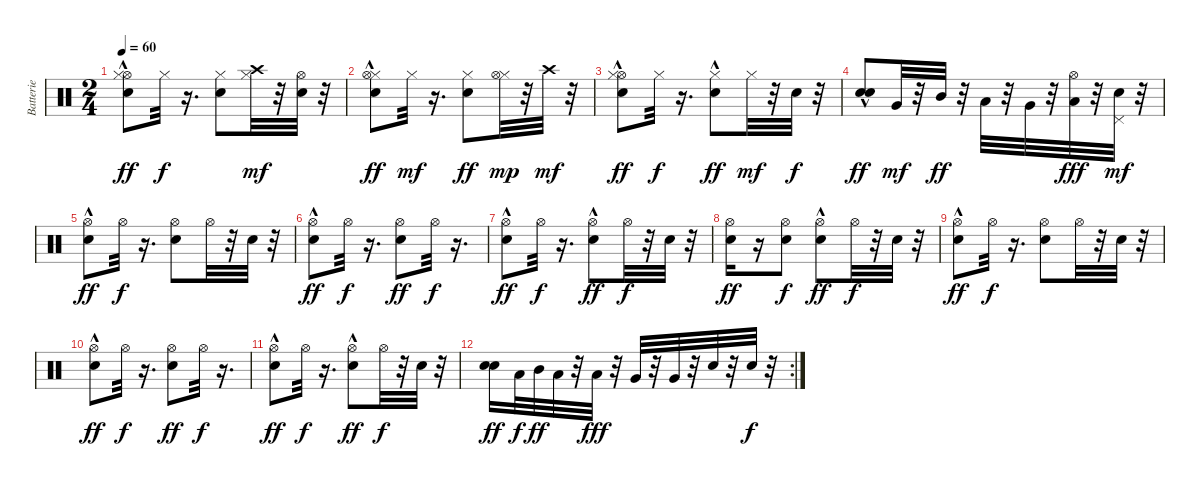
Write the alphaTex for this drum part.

\track ("Batterie" "Batterie") {instrument percussion}
\staff {score}
\articulation defaults
\ts (2 4)
\tempo 60
\clef neutral
\ks c
("Hi-Hat (open)" "Hi-Hat (closed)" "Snare (hit)"{hac}).8{dy ff} "Hi-Hat (closed)".32{dy f} r.16{d} ("Hi-Hat (closed)" "Electric Snare (hit)").8 ("Crash high (hit)" "Hi-Hat (closed)").32{dy mf} r.32 ("Hi-Hat (open)" "Snare (hit)").32 r.32 |
("Hi-Hat (closed)" "Snare (hit)"{hac} "Hi-Hat (open)").8{dy ff} "Hi-Hat (closed)".32{dy mf} r.16{d} ("Hi-Hat (closed)" "Electric Snare (hit)").8{dy ff} ("Hi-Hat (closed)" "Hi-Hat (open)").32{dy mp} r.32 "Crash high (hit)".32{dy mf} r.32 |
("Hi-Hat (open)" "Hi-Hat (closed)" "Snare (hit)"{hac}).8{dy ff} "Hi-Hat (closed)".32{dy f} r.16{d} ("Hi-Hat (closed)" "Electric Snare (hit)"{hac}).8{dy ff} "Hi-Hat (closed)".32{dy mf} r.32 "Snare (hit)".32{dy f} r.32 |
("Snare (hit)" "Snare (hit)"{hac}).8{dy ff} "Very Low Tom (hit)".32{dy mf} r.32 "Mid Tom (hit)".32{dy ff} r.32 "Low Tom (hit)".32 r.32 "Very Low Tom (hit)".32 r.32 ("Low Floor Tom (hit)" "Hi-Hat (open)").32{dy fff} r.32 ("Electric Snare (hit)" "Pedal Hi-Hat (hit)").32{dy mf} r.32 |
("Snare (hit)"{hac} "Hi-Hat (open)").8{dy ff} "Hi-Hat (open)".32{dy f} r.16{d} ("Hi-Hat (open)" "Electric Snare (hit)").8 "Hi-Hat (open)".32 r.32 "Snare (hit)".32 r.32 |
("Hi-Hat (open)" "Snare (hit)"{hac}).8{dy ff} "Hi-Hat (open)".32{dy f} r.16{d} ("Hi-Hat (open)" "Electric Snare (hit)").8{dy ff} "Hi-Hat (open)".32{dy f} r.16{d} |
("Hi-Hat (open)" "Snare (hit)"{hac}).8{dy ff} "Hi-Hat (open)".32{dy f} r.16{d} ("Hi-Hat (open)" "Electric Snare (hit)"{hac}).8{dy ff} "Hi-Hat (open)".32{dy f} r.32 "Snare (hit)".32 r.32 |
("Snare (hit)" "Hi-Hat (open)").16{dy ff} r.16 ("Snare (hit)" "Hi-Hat (open)").8{dy f} ("Hi-Hat (open)" "Electric Snare (hit)"{hac}).8{dy ff} "Hi-Hat (open)".32{dy f} r.32 "Snare (hit)".32 r.32 |
("Hi-Hat (open)" "Snare (hit)"{hac}).8{dy ff} "Hi-Hat (open)".32{dy f} r.16{d} ("Hi-Hat (open)" "Electric Snare (hit)").8 "Hi-Hat (open)".32 r.32 "Snare (hit)".32 r.32 |
("Hi-Hat (open)" "Snare (hit)"{hac}).8{dy ff} "Hi-Hat (open)".32{dy f} r.16{d} ("Hi-Hat (open)" "Electric Snare (hit)").8{dy ff} "Hi-Hat (open)".32{dy f} r.16{d} |
("Hi-Hat (open)" "Snare (hit)"{hac}).8{dy ff} "Hi-Hat (open)".32{dy f} r.16{d} ("Hi-Hat (open)" "Electric Snare (hit)"{hac}).8{dy ff} "Hi-Hat (open)".32{dy f} r.32 "Snare (hit)".32 r.32 |
\rc 2
("Snare (hit)" "Snare (hit)").16{dy ff} "Low Tom (hit)".32{dy f} "Mid Tom (hit)".32{dy ff} "Low Tom (hit)".32 r.32 "Low Tom (hit)".32{dy fff} r.32 "Very Low Tom (hit)".32 r.32 "Very Low Tom (hit)".32 r.32 "Electric Snare (hit)".32 r.32 "Electric Snare (hit)".32{dy f} r.32
